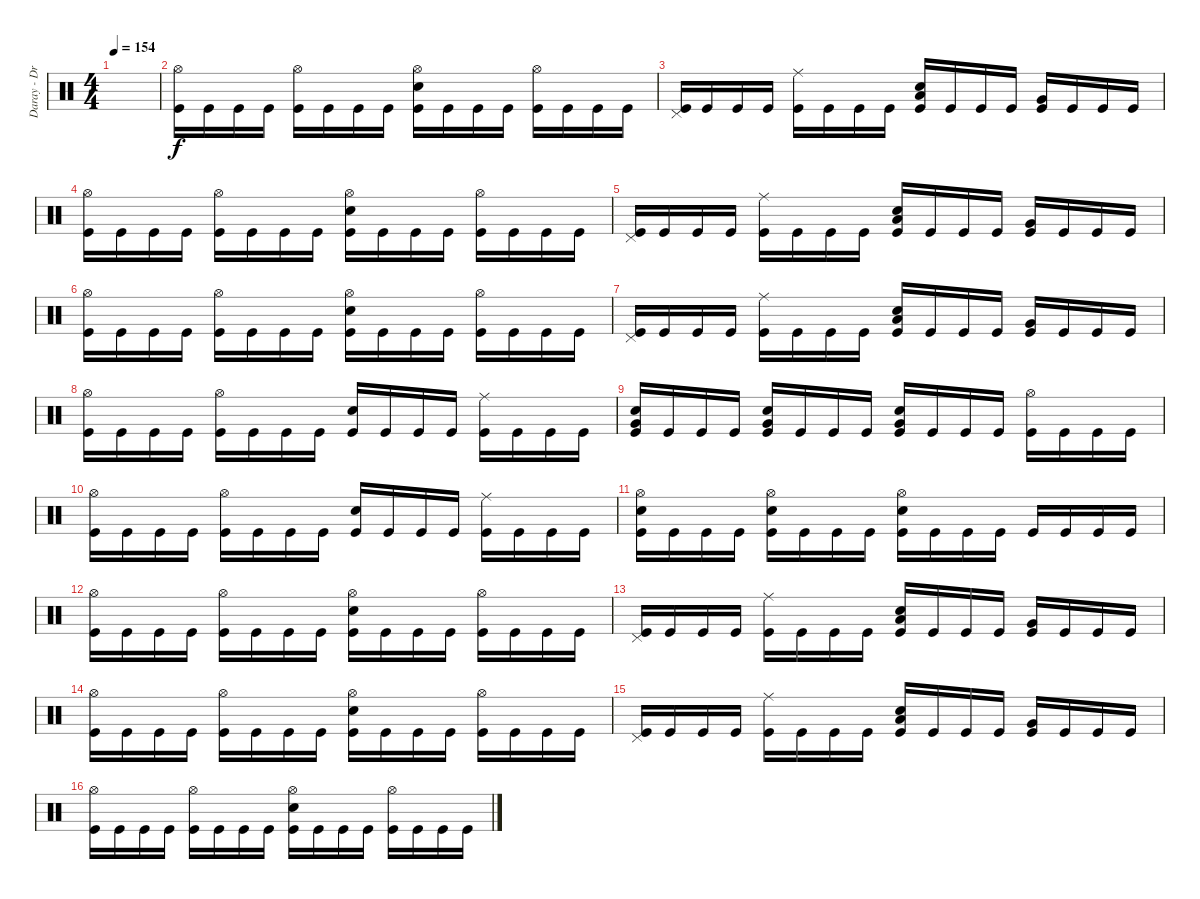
\track ("Daray - Drums" "Daray - Dr") {instrument percussion}
\staff {score}
\articulation defaults
\ts (4 4)
\tempo 154
\clef neutral
\ks c
|
("Hi-Hat (open)" "Kick (hit)").16 "Kick (hit)".16 "Kick (hit)".16 "Kick (hit)".16 ("Hi-Hat (open)" "Kick (hit)").16 "Kick (hit)".16 "Kick (hit)".16 "Kick (hit)".16 ("Hi-Hat (open)" "Electric Snare (hit)" "Kick (hit)").16 "Kick (hit)".16 "Kick (hit)".16 "Kick (hit)".16 ("Hi-Hat (open)" "Kick (hit)").16 "Kick (hit)".16 "Kick (hit)".16 "Kick (hit)".16 |
("Pedal Hi-Hat (hit)" "Kick (hit)").16 "Kick (hit)".16 "Kick (hit)".16 "Kick (hit)".16 ("Ride (middle)" "Kick (hit)").16 "Kick (hit)".16 "Kick (hit)".16 "Kick (hit)".16 ("Electric Snare (hit)" "Low Floor Tom (hit)" "Kick (hit)").16 "Kick (hit)".16 "Kick (hit)".16 "Kick (hit)".16 ("Very Low Tom (hit)" "Kick (hit)").16 "Kick (hit)".16 "Kick (hit)".16 "Kick (hit)".16 |
("Hi-Hat (open)" "Kick (hit)").16 "Kick (hit)".16 "Kick (hit)".16 "Kick (hit)".16 ("Hi-Hat (open)" "Kick (hit)").16 "Kick (hit)".16 "Kick (hit)".16 "Kick (hit)".16 ("Hi-Hat (open)" "Electric Snare (hit)" "Kick (hit)").16 "Kick (hit)".16 "Kick (hit)".16 "Kick (hit)".16 ("Hi-Hat (open)" "Kick (hit)").16 "Kick (hit)".16 "Kick (hit)".16 "Kick (hit)".16 |
("Pedal Hi-Hat (hit)" "Kick (hit)").16 "Kick (hit)".16 "Kick (hit)".16 "Kick (hit)".16 ("Ride (middle)" "Kick (hit)").16 "Kick (hit)".16 "Kick (hit)".16 "Kick (hit)".16 ("Electric Snare (hit)" "Low Floor Tom (hit)" "Kick (hit)").16 "Kick (hit)".16 "Kick (hit)".16 "Kick (hit)".16 ("Very Low Tom (hit)" "Kick (hit)").16 "Kick (hit)".16 "Kick (hit)".16 "Kick (hit)".16 |
("Hi-Hat (open)" "Kick (hit)").16 "Kick (hit)".16 "Kick (hit)".16 "Kick (hit)".16 ("Hi-Hat (open)" "Kick (hit)").16 "Kick (hit)".16 "Kick (hit)".16 "Kick (hit)".16 ("Hi-Hat (open)" "Electric Snare (hit)" "Kick (hit)").16 "Kick (hit)".16 "Kick (hit)".16 "Kick (hit)".16 ("Hi-Hat (open)" "Kick (hit)").16 "Kick (hit)".16 "Kick (hit)".16 "Kick (hit)".16 |
("Pedal Hi-Hat (hit)" "Kick (hit)").16 "Kick (hit)".16 "Kick (hit)".16 "Kick (hit)".16 ("Ride (middle)" "Kick (hit)").16 "Kick (hit)".16 "Kick (hit)".16 "Kick (hit)".16 ("Electric Snare (hit)" "Low Floor Tom (hit)" "Kick (hit)").16 "Kick (hit)".16 "Kick (hit)".16 "Kick (hit)".16 ("Very Low Tom (hit)" "Kick (hit)").16 "Kick (hit)".16 "Kick (hit)".16 "Kick (hit)".16 |
("Hi-Hat (open)" "Kick (hit)").16 "Kick (hit)".16 "Kick (hit)".16 "Kick (hit)".16 ("Hi-Hat (open)" "Kick (hit)").16 "Kick (hit)".16 "Kick (hit)".16 "Kick (hit)".16 ("Electric Snare (hit)" "Kick (hit)").16 "Kick (hit)".16 "Kick (hit)".16 "Kick (hit)".16 ("Ride (middle)" "Kick (hit)").16 "Kick (hit)".16 "Kick (hit)".16 "Kick (hit)".16 |
("Electric Snare (hit)" "Very Low Tom (hit)" "Kick (hit)").16 "Kick (hit)".16 "Kick (hit)".16 "Kick (hit)".16 ("Electric Snare (hit)" "Very Low Tom (hit)" "Kick (hit)").16 "Kick (hit)".16 "Kick (hit)".16 "Kick (hit)".16 ("Electric Snare (hit)" "Very Low Tom (hit)" "Kick (hit)").16 "Kick (hit)".16 "Kick (hit)".16 "Kick (hit)".16 ("Hi-Hat (open)" "Kick (hit)").16 "Kick (hit)".16 "Kick (hit)".16 "Kick (hit)".16 |
("Hi-Hat (open)" "Kick (hit)").16 "Kick (hit)".16 "Kick (hit)".16 "Kick (hit)".16 ("Hi-Hat (open)" "Kick (hit)").16 "Kick (hit)".16 "Kick (hit)".16 "Kick (hit)".16 ("Electric Snare (hit)" "Kick (hit)").16 "Kick (hit)".16 "Kick (hit)".16 "Kick (hit)".16 ("Ride (middle)" "Kick (hit)").16 "Kick (hit)".16 "Kick (hit)".16 "Kick (hit)".16 |
("Hi-Hat (open)" "Electric Snare (hit)" "Kick (hit)").16 "Kick (hit)".16 "Kick (hit)".16 "Kick (hit)".16 ("Hi-Hat (open)" "Electric Snare (hit)" "Kick (hit)").16 "Kick (hit)".16 "Kick (hit)".16 "Kick (hit)".16 ("Hi-Hat (open)" "Electric Snare (hit)" "Kick (hit)").16 "Kick (hit)".16 "Kick (hit)".16 "Kick (hit)".16 "Kick (hit)".16 "Kick (hit)".16 "Kick (hit)".16 "Kick (hit)".16 |
("Hi-Hat (open)" "Kick (hit)").16 "Kick (hit)".16 "Kick (hit)".16 "Kick (hit)".16 ("Hi-Hat (open)" "Kick (hit)").16 "Kick (hit)".16 "Kick (hit)".16 "Kick (hit)".16 ("Hi-Hat (open)" "Electric Snare (hit)" "Kick (hit)").16 "Kick (hit)".16 "Kick (hit)".16 "Kick (hit)".16 ("Hi-Hat (open)" "Kick (hit)").16 "Kick (hit)".16 "Kick (hit)".16 "Kick (hit)".16 |
("Pedal Hi-Hat (hit)" "Kick (hit)").16 "Kick (hit)".16 "Kick (hit)".16 "Kick (hit)".16 ("Ride (middle)" "Kick (hit)").16 "Kick (hit)".16 "Kick (hit)".16 "Kick (hit)".16 ("Electric Snare (hit)" "Low Floor Tom (hit)" "Kick (hit)").16 "Kick (hit)".16 "Kick (hit)".16 "Kick (hit)".16 ("Very Low Tom (hit)" "Kick (hit)").16 "Kick (hit)".16 "Kick (hit)".16 "Kick (hit)".16 |
("Hi-Hat (open)" "Kick (hit)").16 "Kick (hit)".16 "Kick (hit)".16 "Kick (hit)".16 ("Hi-Hat (open)" "Kick (hit)").16 "Kick (hit)".16 "Kick (hit)".16 "Kick (hit)".16 ("Hi-Hat (open)" "Electric Snare (hit)" "Kick (hit)").16 "Kick (hit)".16 "Kick (hit)".16 "Kick (hit)".16 ("Hi-Hat (open)" "Kick (hit)").16 "Kick (hit)".16 "Kick (hit)".16 "Kick (hit)".16 |
("Pedal Hi-Hat (hit)" "Kick (hit)").16 "Kick (hit)".16 "Kick (hit)".16 "Kick (hit)".16 ("Ride (middle)" "Kick (hit)").16 "Kick (hit)".16 "Kick (hit)".16 "Kick (hit)".16 ("Electric Snare (hit)" "Low Floor Tom (hit)" "Kick (hit)").16 "Kick (hit)".16 "Kick (hit)".16 "Kick (hit)".16 ("Very Low Tom (hit)" "Kick (hit)").16 "Kick (hit)".16 "Kick (hit)".16 "Kick (hit)".16 |
("Hi-Hat (open)" "Kick (hit)").16 "Kick (hit)".16 "Kick (hit)".16 "Kick (hit)".16 ("Hi-Hat (open)" "Kick (hit)").16 "Kick (hit)".16 "Kick (hit)".16 "Kick (hit)".16 ("Hi-Hat (open)" "Electric Snare (hit)" "Kick (hit)").16 "Kick (hit)".16 "Kick (hit)".16 "Kick (hit)".16 ("Hi-Hat (open)" "Kick (hit)").16 "Kick (hit)".16 "Kick (hit)".16 "Kick (hit)".16
